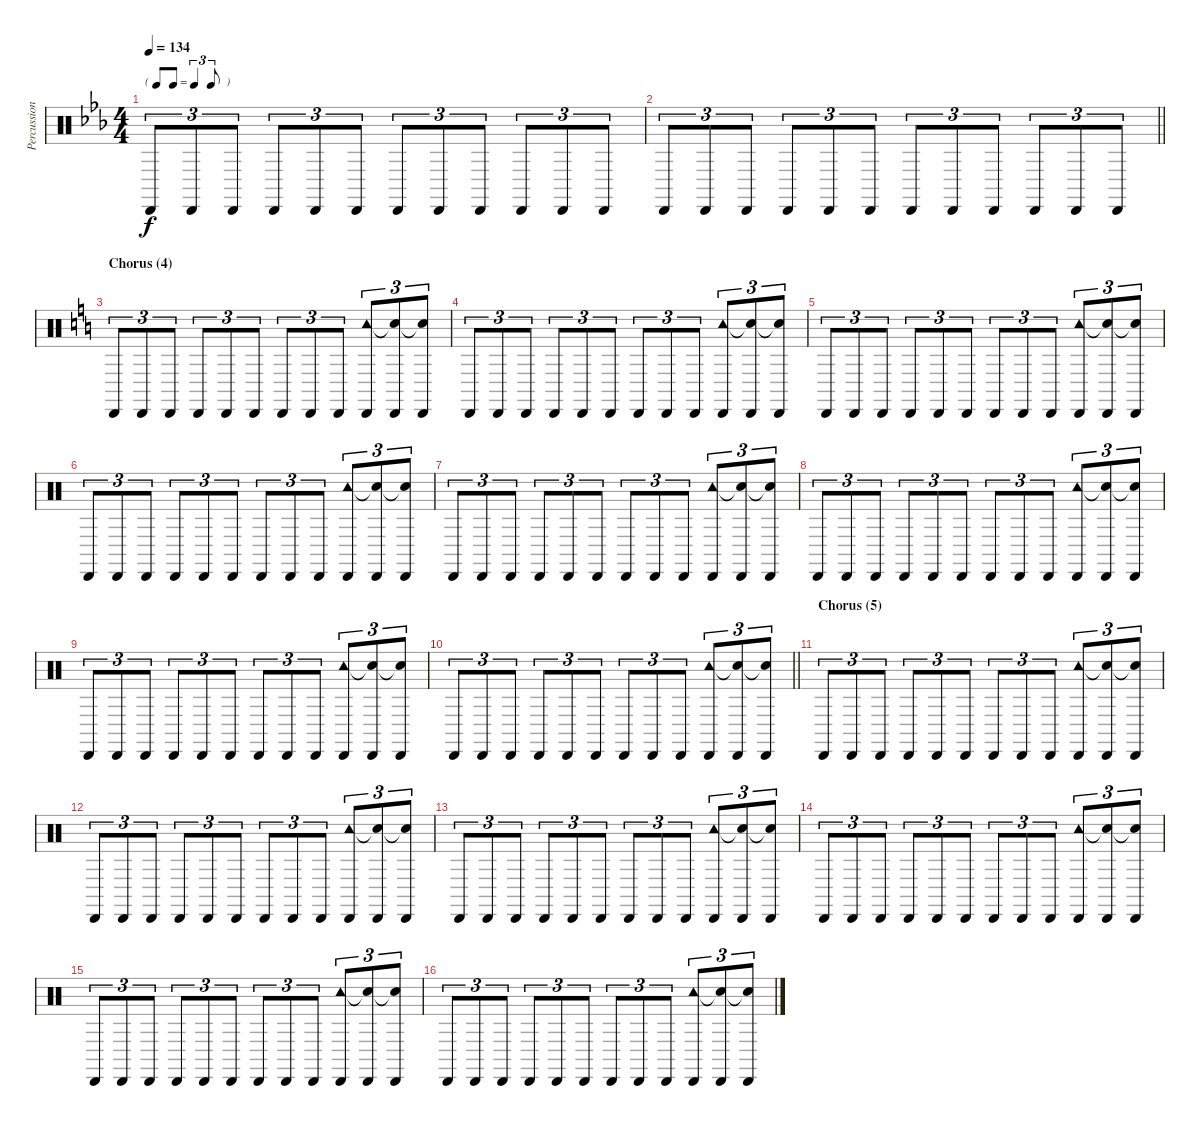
\track ("Percussion" "Percussion") {instrument percussion}
\staff {score}
\articulation defaults
\ts (4 4)
\tf triplet8th
\tempo 134
\clef neutral
\ks eb "Cabasa (hit)".8{tu (3 2) dy f} "Cabasa (hit)".8{tu (3 2)} "Cabasa (hit)".8{tu (3 2)} "Cabasa (hit)".8{tu (3 2)} "Cabasa (hit)".8{tu (3 2)} "Cabasa (hit)".8{tu (3 2)} "Cabasa (hit)".8{tu (3 2)} "Cabasa (hit)".8{tu (3 2)} "Cabasa (hit)".8{tu (3 2)} "Cabasa (hit)".8{tu (3 2)} "Cabasa (hit)".8{tu (3 2)} "Cabasa (hit)".8{tu (3 2)}
|
\barLineRight lightlight "Cabasa (hit)".8{tu (3 2)} "Cabasa (hit)".8{tu (3 2)} "Cabasa (hit)".8{tu (3 2)} "Cabasa (hit)".8{tu (3 2)} "Cabasa (hit)".8{tu (3 2)} "Cabasa (hit)".8{tu (3 2)} "Cabasa (hit)".8{tu (3 2)} "Cabasa (hit)".8{tu (3 2)} "Cabasa (hit)".8{tu (3 2)} "Cabasa (hit)".8{tu (3 2)} "Cabasa (hit)".8{tu (3 2)} "Cabasa (hit)".8{tu (3 2)}
|
\section ("" "Chorus (4)")
\ks c "Cabasa (hit)".8{tu (3 2)} "Cabasa (hit)".8{tu (3 2)} "Cabasa (hit)".8{tu (3 2)} "Cabasa (hit)".8{tu (3 2)} "Cabasa (hit)".8{tu (3 2)} "Cabasa (hit)".8{tu (3 2)} "Cabasa (hit)".8{tu (3 2)} "Cabasa (hit)".8{tu (3 2)} "Cabasa (hit)".8{tu (3 2)}
("Cabasa (hit)" "Tambourine (hit)").8{tu (3 2)} ("Cabasa (hit)" "Snare (hit)"{t}).8{tu (3 2)} ("Cabasa (hit)" "Snare (hit)"{t}).8{tu (3 2)} |
"Cabasa (hit)".8{tu (3 2)} "Cabasa (hit)".8{tu (3 2)} "Cabasa (hit)".8{tu (3 2)} "Cabasa (hit)".8{tu (3 2)} "Cabasa (hit)".8{tu (3 2)} "Cabasa (hit)".8{tu (3 2)} "Cabasa (hit)".8{tu (3 2)} "Cabasa (hit)".8{tu (3 2)} "Cabasa (hit)".8{tu (3 2)} ("Cabasa (hit)" "Tambourine (hit)").8{tu (3 2)} ("Cabasa (hit)" "Snare (hit)"{t}).8{tu (3 2)} ("Cabasa (hit)" "Snare (hit)"{t}).8{tu (3 2)} |
"Cabasa (hit)".8{tu (3 2)} "Cabasa (hit)".8{tu (3 2)} "Cabasa (hit)".8{tu (3 2)} "Cabasa (hit)".8{tu (3 2)} "Cabasa (hit)".8{tu (3 2)} "Cabasa (hit)".8{tu (3 2)} "Cabasa (hit)".8{tu (3 2)} "Cabasa (hit)".8{tu (3 2)} "Cabasa (hit)".8{tu (3 2)} ("Cabasa (hit)" "Tambourine (hit)").8{tu (3 2)} ("Cabasa (hit)" "Snare (hit)"{t}).8{tu (3 2)} ("Cabasa (hit)" "Snare (hit)"{t}).8{tu (3 2)} |
"Cabasa (hit)".8{tu (3 2)} "Cabasa (hit)".8{tu (3 2)} "Cabasa (hit)".8{tu (3 2)} "Cabasa (hit)".8{tu (3 2)} "Cabasa (hit)".8{tu (3 2)} "Cabasa (hit)".8{tu (3 2)} "Cabasa (hit)".8{tu (3 2)} "Cabasa (hit)".8{tu (3 2)} "Cabasa (hit)".8{tu (3 2)} ("Cabasa (hit)" "Tambourine (hit)").8{tu (3 2)} ("Cabasa (hit)" "Snare (hit)"{t}).8{tu (3 2)} ("Cabasa (hit)" "Snare (hit)"{t}).8{tu (3 2)} |
"Cabasa (hit)".8{tu (3 2)} "Cabasa (hit)".8{tu (3 2)} "Cabasa (hit)".8{tu (3 2)} "Cabasa (hit)".8{tu (3 2)} "Cabasa (hit)".8{tu (3 2)} "Cabasa (hit)".8{tu (3 2)} "Cabasa (hit)".8{tu (3 2)} "Cabasa (hit)".8{tu (3 2)} "Cabasa (hit)".8{tu (3 2)} ("Cabasa (hit)" "Tambourine (hit)").8{tu (3 2)} ("Cabasa (hit)" "Snare (hit)"{t}).8{tu (3 2)} ("Cabasa (hit)" "Snare (hit)"{t}).8{tu (3 2)} |
"Cabasa (hit)".8{tu (3 2)} "Cabasa (hit)".8{tu (3 2)} "Cabasa (hit)".8{tu (3 2)} "Cabasa (hit)".8{tu (3 2)} "Cabasa (hit)".8{tu (3 2)} "Cabasa (hit)".8{tu (3 2)} "Cabasa (hit)".8{tu (3 2)} "Cabasa (hit)".8{tu (3 2)} "Cabasa (hit)".8{tu (3 2)} ("Cabasa (hit)" "Tambourine (hit)").8{tu (3 2)} ("Cabasa (hit)" "Snare (hit)"{t}).8{tu (3 2)} ("Cabasa (hit)" "Snare (hit)"{t}).8{tu (3 2)} |
"Cabasa (hit)".8{tu (3 2)} "Cabasa (hit)".8{tu (3 2)} "Cabasa (hit)".8{tu (3 2)} "Cabasa (hit)".8{tu (3 2)} "Cabasa (hit)".8{tu (3 2)} "Cabasa (hit)".8{tu (3 2)} "Cabasa (hit)".8{tu (3 2)} "Cabasa (hit)".8{tu (3 2)} "Cabasa (hit)".8{tu (3 2)} ("Cabasa (hit)" "Tambourine (hit)").8{tu (3 2)} ("Cabasa (hit)" "Snare (hit)"{t}).8{tu (3 2)} ("Cabasa (hit)" "Snare (hit)"{t}).8{tu (3 2)} |
\barLineRight lightlight "Cabasa (hit)".8{tu (3 2)} "Cabasa (hit)".8{tu (3 2)} "Cabasa (hit)".8{tu (3 2)} "Cabasa (hit)".8{tu (3 2)} "Cabasa (hit)".8{tu (3 2)} "Cabasa (hit)".8{tu (3 2)} "Cabasa (hit)".8{tu (3 2)} "Cabasa (hit)".8{tu (3 2)} "Cabasa (hit)".8{tu (3 2)}
("Cabasa (hit)" "Tambourine (hit)").8{tu (3 2)} ("Cabasa (hit)" "Snare (hit)"{t}).8{tu (3 2)} ("Cabasa (hit)" "Snare (hit)"{t}).8{tu (3 2)} |
\section ("" "Chorus (5)")
"Cabasa (hit)".8{tu (3 2)} "Cabasa (hit)".8{tu (3 2)} "Cabasa (hit)".8{tu (3 2)} "Cabasa (hit)".8{tu (3 2)} "Cabasa (hit)".8{tu (3 2)} "Cabasa (hit)".8{tu (3 2)} "Cabasa (hit)".8{tu (3 2)} "Cabasa (hit)".8{tu (3 2)} "Cabasa (hit)".8{tu (3 2)} ("Cabasa (hit)" "Tambourine (hit)").8{tu (3 2)} ("Cabasa (hit)" "Snare (hit)"{t}).8{tu (3 2)} ("Cabasa (hit)" "Snare (hit)"{t}).8{tu (3 2)} |
"Cabasa (hit)".8{tu (3 2)} "Cabasa (hit)".8{tu (3 2)} "Cabasa (hit)".8{tu (3 2)} "Cabasa (hit)".8{tu (3 2)} "Cabasa (hit)".8{tu (3 2)} "Cabasa (hit)".8{tu (3 2)} "Cabasa (hit)".8{tu (3 2)} "Cabasa (hit)".8{tu (3 2)} "Cabasa (hit)".8{tu (3 2)} ("Cabasa (hit)" "Tambourine (hit)").8{tu (3 2)} ("Cabasa (hit)" "Snare (hit)"{t}).8{tu (3 2)} ("Cabasa (hit)" "Snare (hit)"{t}).8{tu (3 2)} |
"Cabasa (hit)".8{tu (3 2)} "Cabasa (hit)".8{tu (3 2)} "Cabasa (hit)".8{tu (3 2)} "Cabasa (hit)".8{tu (3 2)} "Cabasa (hit)".8{tu (3 2)} "Cabasa (hit)".8{tu (3 2)} "Cabasa (hit)".8{tu (3 2)} "Cabasa (hit)".8{tu (3 2)} "Cabasa (hit)".8{tu (3 2)} ("Cabasa (hit)" "Tambourine (hit)").8{tu (3 2)} ("Cabasa (hit)" "Snare (hit)"{t}).8{tu (3 2)} ("Cabasa (hit)" "Snare (hit)"{t}).8{tu (3 2)} |
"Cabasa (hit)".8{tu (3 2)} "Cabasa (hit)".8{tu (3 2)} "Cabasa (hit)".8{tu (3 2)} "Cabasa (hit)".8{tu (3 2)} "Cabasa (hit)".8{tu (3 2)} "Cabasa (hit)".8{tu (3 2)} "Cabasa (hit)".8{tu (3 2)} "Cabasa (hit)".8{tu (3 2)} "Cabasa (hit)".8{tu (3 2)} ("Cabasa (hit)" "Tambourine (hit)").8{tu (3 2)} ("Cabasa (hit)" "Snare (hit)"{t}).8{tu (3 2)} ("Cabasa (hit)" "Snare (hit)"{t}).8{tu (3 2)} |
"Cabasa (hit)".8{tu (3 2)} "Cabasa (hit)".8{tu (3 2)} "Cabasa (hit)".8{tu (3 2)} "Cabasa (hit)".8{tu (3 2)} "Cabasa (hit)".8{tu (3 2)} "Cabasa (hit)".8{tu (3 2)} "Cabasa (hit)".8{tu (3 2)} "Cabasa (hit)".8{tu (3 2)} "Cabasa (hit)".8{tu (3 2)} ("Cabasa (hit)" "Tambourine (hit)").8{tu (3 2)} ("Cabasa (hit)" "Snare (hit)"{t}).8{tu (3 2)} ("Cabasa (hit)" "Snare (hit)"{t}).8{tu (3 2)} |
"Cabasa (hit)".8{tu (3 2)} "Cabasa (hit)".8{tu (3 2)} "Cabasa (hit)".8{tu (3 2)} "Cabasa (hit)".8{tu (3 2)} "Cabasa (hit)".8{tu (3 2)} "Cabasa (hit)".8{tu (3 2)} "Cabasa (hit)".8{tu (3 2)} "Cabasa (hit)".8{tu (3 2)} "Cabasa (hit)".8{tu (3 2)} ("Cabasa (hit)" "Tambourine (hit)").8{tu (3 2)} ("Cabasa (hit)" "Snare (hit)"{t}).8{tu (3 2)} ("Cabasa (hit)" "Snare (hit)"{t}).8{tu (3 2)}
